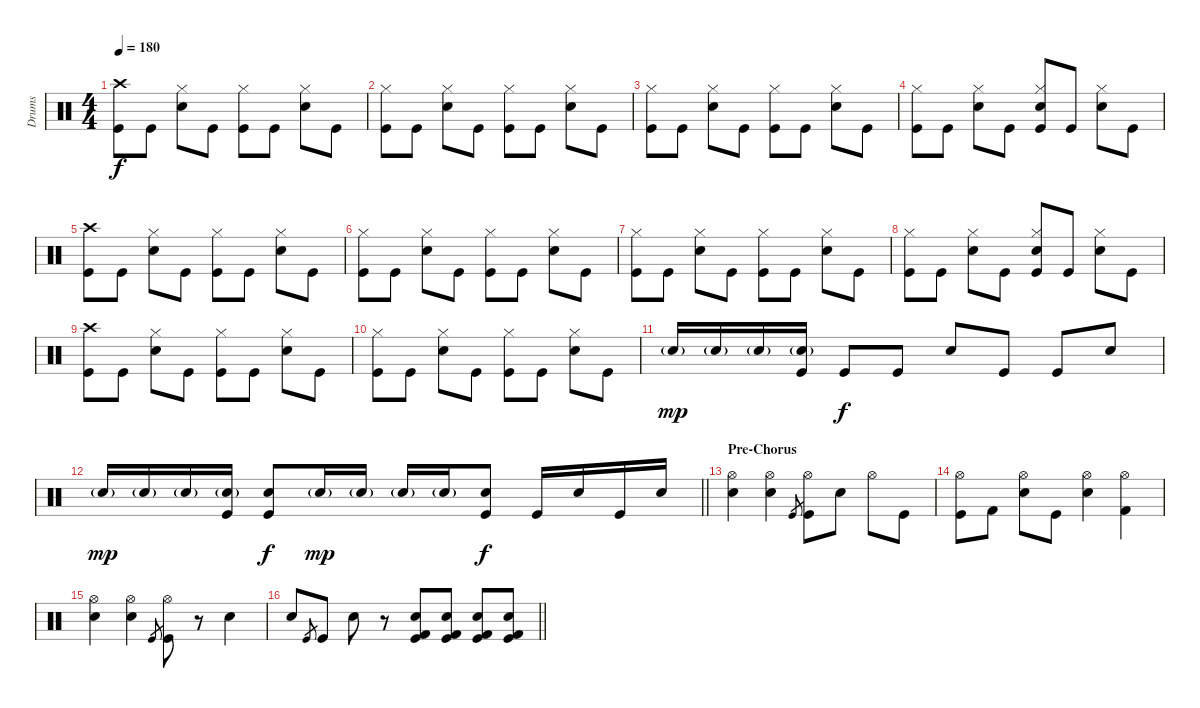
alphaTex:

\track ("Drums" "Drums") {instrument percussion}
\staff {score}
\articulation defaults
\ts (4 4)
\tempo 180
\clef neutral
\ks c
("Crash high (hit)" "Kick (hit)").8{dy f} "Kick (hit)".8 ("Hi-Hat (closed)" "Snare (hit) 2").8 "Kick (hit)".8 ("Hi-Hat (closed)" "Kick (hit)").8 "Kick (hit)".8 ("Hi-Hat (closed)" "Snare (hit) 2").8 "Kick (hit)".8 |
("Hi-Hat (closed)" "Kick (hit)").8 "Kick (hit)".8 ("Hi-Hat (closed)" "Snare (hit) 2").8 "Kick (hit)".8 ("Hi-Hat (closed)" "Kick (hit)").8 "Kick (hit)".8 ("Hi-Hat (closed)" "Snare (hit) 2").8 "Kick (hit)".8 |
("Hi-Hat (closed)" "Kick (hit)").8 "Kick (hit)".8 ("Hi-Hat (closed)" "Snare (hit) 2").8 "Kick (hit)".8 ("Hi-Hat (closed)" "Kick (hit)").8 "Kick (hit)".8 ("Hi-Hat (closed)" "Snare (hit) 2").8 "Kick (hit)".8 |
("Hi-Hat (closed)" "Kick (hit)").8 "Kick (hit)".8 ("Hi-Hat (closed)" "Snare (hit) 2").8 "Kick (hit)".8 ("Hi-Hat (closed)" "Snare (hit) 2" "Kick (hit)").8 "Kick (hit)".8 ("Hi-Hat (closed)" "Snare (hit) 2").8 "Kick (hit)".8 |
("Crash high (hit)" "Kick (hit)").8 "Kick (hit)".8 ("Hi-Hat (closed)" "Snare (hit) 2").8 "Kick (hit)".8 ("Hi-Hat (closed)" "Kick (hit)").8 "Kick (hit)".8 ("Hi-Hat (closed)" "Snare (hit) 2").8 "Kick (hit)".8 |
("Hi-Hat (closed)" "Kick (hit)").8 "Kick (hit)".8 ("Hi-Hat (closed)" "Snare (hit) 2").8 "Kick (hit)".8 ("Hi-Hat (closed)" "Kick (hit)").8 "Kick (hit)".8 ("Hi-Hat (closed)" "Snare (hit) 2").8 "Kick (hit)".8 |
("Hi-Hat (closed)" "Kick (hit)").8 "Kick (hit)".8 ("Hi-Hat (closed)" "Snare (hit) 2").8 "Kick (hit)".8 ("Hi-Hat (closed)" "Kick (hit)").8 "Kick (hit)".8 ("Hi-Hat (closed)" "Snare (hit) 2").8 "Kick (hit)".8 |
("Hi-Hat (closed)" "Kick (hit)").8 "Kick (hit)".8 ("Hi-Hat (closed)" "Snare (hit) 2").8 "Kick (hit)".8 ("Hi-Hat (closed)" "Snare (hit) 2" "Kick (hit)").8 "Kick (hit)".8 ("Hi-Hat (closed)" "Snare (hit) 2").8 "Kick (hit)".8 |
("Crash high (hit)" "Kick (hit)").8 "Kick (hit)".8 ("Hi-Hat (closed)" "Snare (hit) 2").8 "Kick (hit)".8 ("Hi-Hat (closed)" "Kick (hit)").8 "Kick (hit)".8 ("Hi-Hat (closed)" "Snare (hit) 2").8 "Kick (hit)".8 |
("Hi-Hat (closed)" "Kick (hit)").8 "Kick (hit)".8 ("Hi-Hat (closed)" "Snare (hit) 2").8 "Kick (hit)".8 ("Hi-Hat (closed)" "Kick (hit)").8 "Kick (hit)".8 ("Hi-Hat (closed)" "Snare (hit) 2").8 "Kick (hit)".8 |
"Snare (hit) 2"{g}.16{dy mp} "Snare (hit) 2"{g}.16 "Snare (hit) 2"{g}.16 ("Snare (hit) 2"{g} "Kick (hit)").16 "Kick (hit)".8{dy f} "Kick (hit)".8 "Snare (hit) 2".8 "Kick (hit)".8 "Kick (hit)".8 "Snare (hit) 2".8 |
\barLineRight lightlight "Snare (hit) 2"{g}.16{dy mp} "Snare (hit) 2"{g}.16 "Snare (hit) 2"{g}.16
("Snare (hit) 2"{g} "Kick (hit)").16 ("Snare (hit) 2" "Kick (hit)").8{dy f} "Snare (hit) 2"{g}.16{dy mp} "Snare (hit) 2"{g}.16 "Snare (hit) 2"{g}.16 "Snare (hit) 2"{g}.16 ("Snare (hit) 2" "Kick (hit)").8{dy f} "Kick (hit)".16 "Snare (hit) 2".16 "Kick (hit)".16 "Snare (hit) 2".16 |
\section ("" "Pre-Chorus")
("Hi-Hat (open)" "Snare (hit) 2").4 ("Hi-Hat (open)" "Snare (hit) 2").4 "Kick (hit)".8{gr} ("Hi-Hat (open)" "Kick (hit)").8 "Snare (hit) 2".8 "Hi-Hat (open)".8 "Kick (hit)".8 |
("Hi-Hat (open)" "Kick (hit)").8 "Kick (hit) 2".8 ("Hi-Hat (open)" "Snare (hit) 2").8 "Kick (hit)".8 ("Hi-Hat (open)" "Snare (hit) 2").4 ("Hi-Hat (open)" "Kick (hit) 2").4 |
("Hi-Hat (open)" "Snare (hit) 2").4 ("Hi-Hat (open)" "Snare (hit) 2").4 "Kick (hit)".8{gr} ("Hi-Hat (open)" "Kick (hit)").8 r.8 "Snare (hit) 2".4 |
\barLineRight lightlight "Snare (hit) 2".8 "Kick (hit)".8{gr} "Kick (hit)".8 "Snare (hit) 2".8
r.8 ("Kick (hit) 2" "Snare (hit) 2" "Kick (hit)").8 ("Kick (hit) 2" "Snare (hit) 2" "Kick (hit)").8 ("Kick (hit) 2" "Snare (hit) 2" "Kick (hit)").8 ("Kick (hit) 2" "Snare (hit) 2" "Kick (hit)").8
